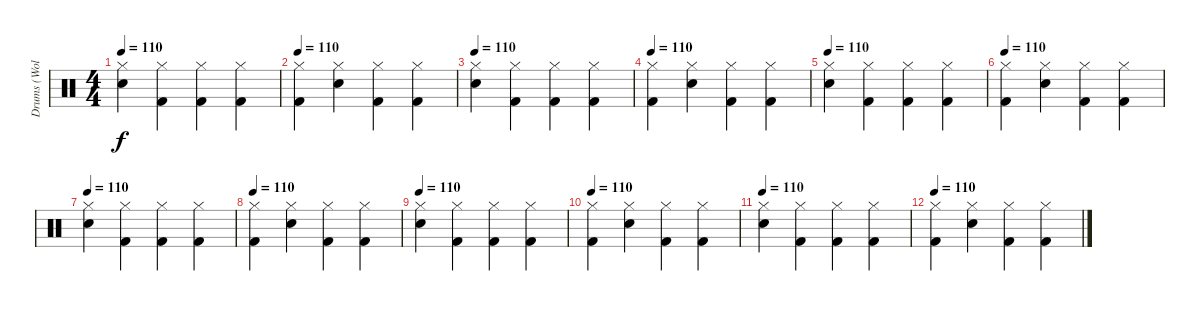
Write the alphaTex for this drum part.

\track ("Drums (Wolf Simons)" "Drums (Wol") {instrument percussion}
\staff {score}
\articulation defaults
\ts (4 4)
\tempo 110
\clef neutral
\ks c
("Hi-Hat (closed)" "Electric Snare (hit)").4{dy f} ("Hi-Hat (closed)" "Kick (hit) 2").4 ("Hi-Hat (closed)" "Kick (hit) 2").4 ("Hi-Hat (closed)" "Kick (hit) 2").4 |
\tempo 110
("Hi-Hat (closed)" "Kick (hit) 2").4 ("Hi-Hat (closed)" "Electric Snare (hit)").4 ("Hi-Hat (closed)" "Kick (hit) 2").4 ("Hi-Hat (closed)" "Kick (hit) 2").4 |
\tempo 110
("Hi-Hat (closed)" "Electric Snare (hit)").4 ("Hi-Hat (closed)" "Kick (hit) 2").4 ("Hi-Hat (closed)" "Kick (hit) 2").4 ("Hi-Hat (closed)" "Kick (hit) 2").4 |
\tempo 110
("Hi-Hat (closed)" "Kick (hit) 2").4 ("Hi-Hat (closed)" "Electric Snare (hit)").4 ("Hi-Hat (closed)" "Kick (hit) 2").4 ("Hi-Hat (closed)" "Kick (hit) 2").4 |
\tempo 110
("Hi-Hat (closed)" "Electric Snare (hit)").4{volume 14} ("Hi-Hat (closed)" "Kick (hit) 2").4 ("Hi-Hat (closed)" "Kick (hit) 2").4 ("Hi-Hat (closed)" "Kick (hit) 2").4 |
\tempo 110
("Hi-Hat (closed)" "Kick (hit) 2").4 ("Hi-Hat (closed)" "Electric Snare (hit)").4 ("Hi-Hat (closed)" "Kick (hit) 2").4 ("Hi-Hat (closed)" "Kick (hit) 2").4 |
\tempo 110
("Hi-Hat (closed)" "Electric Snare (hit)").4{volume 14} ("Hi-Hat (closed)" "Kick (hit) 2").4 ("Hi-Hat (closed)" "Kick (hit) 2").4 ("Hi-Hat (closed)" "Kick (hit) 2").4 |
\tempo 110
("Hi-Hat (closed)" "Kick (hit) 2").4 ("Hi-Hat (closed)" "Electric Snare (hit)").4 ("Hi-Hat (closed)" "Kick (hit) 2").4 ("Hi-Hat (closed)" "Kick (hit) 2").4 |
\tempo 110
("Hi-Hat (closed)" "Electric Snare (hit)").4{volume 8} ("Hi-Hat (closed)" "Kick (hit) 2").4 ("Hi-Hat (closed)" "Kick (hit) 2").4 ("Hi-Hat (closed)" "Kick (hit) 2").4 |
\tempo 110
("Hi-Hat (closed)" "Kick (hit) 2").4 ("Hi-Hat (closed)" "Electric Snare (hit)").4 ("Hi-Hat (closed)" "Kick (hit) 2").4 ("Hi-Hat (closed)" "Kick (hit) 2").4 |
\tempo 110
("Hi-Hat (closed)" "Electric Snare (hit)").4{volume 6} ("Hi-Hat (closed)" "Kick (hit) 2").4 ("Hi-Hat (closed)" "Kick (hit) 2").4 ("Hi-Hat (closed)" "Kick (hit) 2").4 |
\tempo 110
("Hi-Hat (closed)" "Kick (hit) 2").4 ("Hi-Hat (closed)" "Electric Snare (hit)").4 ("Hi-Hat (closed)" "Kick (hit) 2").4 ("Hi-Hat (closed)" "Kick (hit) 2").4
